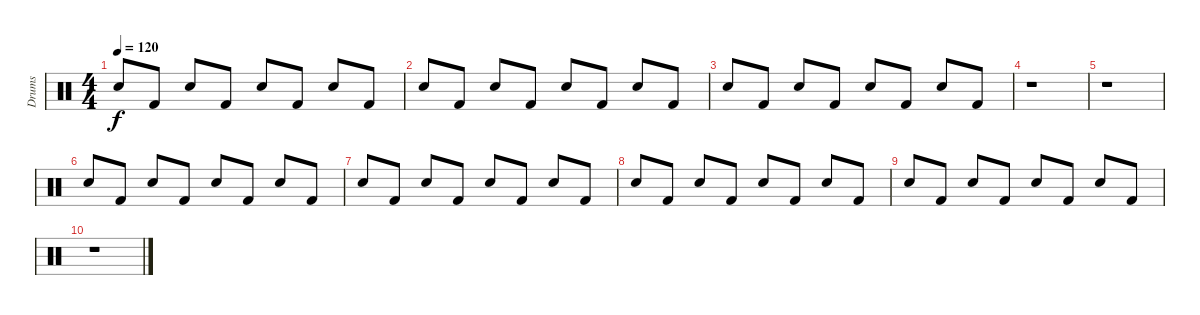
\track ("Drums" "Drums") {instrument percussion}
\staff {score}
\articulation defaults
\ts (4 4)
\tempo 120
\clef neutral
\ks c "Snare (hit) 2".8{dy f} "Kick (hit) 2".8 "Snare (hit) 2".8 "Kick (hit) 2".8 "Snare (hit) 2".8 "Kick (hit) 2".8 "Snare (hit) 2".8 "Kick (hit) 2".8
|
"Snare (hit) 2".8 "Kick (hit) 2".8 "Snare (hit) 2".8 "Kick (hit) 2".8 "Snare (hit) 2".8 "Kick (hit) 2".8 "Snare (hit) 2".8 "Kick (hit) 2".8 |
"Snare (hit) 2".8 "Kick (hit) 2".8 "Snare (hit) 2".8 "Kick (hit) 2".8 "Snare (hit) 2".8 "Kick (hit) 2".8 "Snare (hit) 2".8 "Kick (hit) 2".8 |
r.1 |
r.1 |
"Snare (hit) 2".8 "Kick (hit) 2".8 "Snare (hit) 2".8 "Kick (hit) 2".8 "Snare (hit) 2".8 "Kick (hit) 2".8 "Snare (hit) 2".8 "Kick (hit) 2".8 |
"Snare (hit) 2".8 "Kick (hit) 2".8 "Snare (hit) 2".8 "Kick (hit) 2".8 "Snare (hit) 2".8 "Kick (hit) 2".8 "Snare (hit) 2".8 "Kick (hit) 2".8 |
"Snare (hit) 2".8 "Kick (hit) 2".8 "Snare (hit) 2".8 "Kick (hit) 2".8 "Snare (hit) 2".8 "Kick (hit) 2".8 "Snare (hit) 2".8 "Kick (hit) 2".8 |
"Snare (hit) 2".8 "Kick (hit) 2".8 "Snare (hit) 2".8 "Kick (hit) 2".8 "Snare (hit) 2".8 "Kick (hit) 2".8 "Snare (hit) 2".8 "Kick (hit) 2".8 |
r.1
